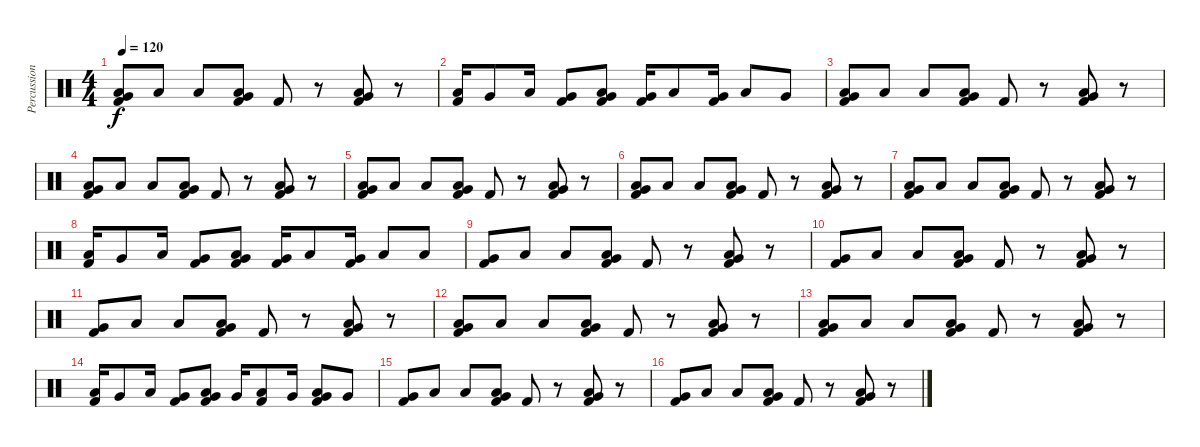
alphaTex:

\track ("Percussion" "Percussion") {instrument percussion}
\staff {score}
\articulation defaults
\ts (4 4)
\tempo 120
\clef neutral
\ks c
("Low Floor Tom (hit)" "Very Low Tom (hit)" "Kick (hit) 2").8{dy f} "Low Floor Tom (hit)".8 "Low Floor Tom (hit)".8 ("Low Floor Tom (hit)" "Very Low Tom (hit)" "Kick (hit) 2").8 "Kick (hit) 2".8 r.8 ("Low Floor Tom (hit)" "Very Low Tom (hit)" "Kick (hit) 2").8 r.8 |
("Low Floor Tom (hit)" "Kick (hit) 2").16 "Very Low Tom (hit)".8 "Low Floor Tom (hit)".16 ("Very Low Tom (hit)" "Kick (hit) 2").8 ("Low Floor Tom (hit)" "Very Low Tom (hit)" "Kick (hit) 2").8 ("Very Low Tom (hit)" "Kick (hit) 2").16 "Low Floor Tom (hit)".8 ("Very Low Tom (hit)" "Kick (hit) 2").16 "Low Floor Tom (hit)".8 "Very Low Tom (hit)".8 |
("Low Floor Tom (hit)" "Very Low Tom (hit)" "Kick (hit) 2").8 "Low Floor Tom (hit)".8 "Low Floor Tom (hit)".8 ("Low Floor Tom (hit)" "Very Low Tom (hit)" "Kick (hit) 2").8 "Kick (hit) 2".8 r.8 ("Low Floor Tom (hit)" "Very Low Tom (hit)" "Kick (hit) 2").8 r.8 |
("Low Floor Tom (hit)" "Very Low Tom (hit)" "Kick (hit) 2").8 "Low Floor Tom (hit)".8 "Low Floor Tom (hit)".8 ("Low Floor Tom (hit)" "Very Low Tom (hit)" "Kick (hit) 2").8 "Kick (hit) 2".8 r.8 ("Low Floor Tom (hit)" "Very Low Tom (hit)" "Kick (hit) 2").8 r.8 |
("Low Floor Tom (hit)" "Very Low Tom (hit)" "Kick (hit) 2").8 "Low Floor Tom (hit)".8 "Low Floor Tom (hit)".8 ("Low Floor Tom (hit)" "Very Low Tom (hit)" "Kick (hit) 2").8 "Kick (hit) 2".8 r.8 ("Low Floor Tom (hit)" "Very Low Tom (hit)" "Kick (hit) 2").8 r.8 |
("Low Floor Tom (hit)" "Very Low Tom (hit)" "Kick (hit) 2").8 "Low Floor Tom (hit)".8 "Low Floor Tom (hit)".8 ("Low Floor Tom (hit)" "Very Low Tom (hit)" "Kick (hit) 2").8 "Kick (hit) 2".8 r.8 ("Low Floor Tom (hit)" "Very Low Tom (hit)" "Kick (hit) 2").8 r.8 |
("Low Floor Tom (hit)" "Very Low Tom (hit)" "Kick (hit) 2").8 "Low Floor Tom (hit)".8 "Low Floor Tom (hit)".8 ("Low Floor Tom (hit)" "Very Low Tom (hit)" "Kick (hit) 2").8 "Kick (hit) 2".8 r.8 ("Low Floor Tom (hit)" "Very Low Tom (hit)" "Kick (hit) 2").8 r.8 |
("Low Floor Tom (hit)" "Kick (hit) 2").16 "Very Low Tom (hit)".8 "Low Floor Tom (hit)".16 ("Very Low Tom (hit)" "Kick (hit) 2").8 ("Low Floor Tom (hit)" "Very Low Tom (hit)" "Kick (hit) 2").8 ("Very Low Tom (hit)" "Kick (hit) 2").16 "Low Floor Tom (hit)".8 ("Very Low Tom (hit)" "Kick (hit) 2").16 "Low Floor Tom (hit)".8 "Low Floor Tom (hit)".8 |
("Very Low Tom (hit)" "Kick (hit) 2").8 "Low Floor Tom (hit)".8 "Low Floor Tom (hit)".8 ("Low Floor Tom (hit)" "Very Low Tom (hit)" "Kick (hit) 2").8 "Kick (hit) 2".8 r.8 ("Low Floor Tom (hit)" "Very Low Tom (hit)" "Kick (hit) 2").8 r.8 |
("Very Low Tom (hit)" "Kick (hit) 2").8 "Low Floor Tom (hit)".8 "Low Floor Tom (hit)".8 ("Low Floor Tom (hit)" "Very Low Tom (hit)" "Kick (hit) 2").8 "Kick (hit) 2".8 r.8 ("Low Floor Tom (hit)" "Very Low Tom (hit)" "Kick (hit) 2").8 r.8 |
("Very Low Tom (hit)" "Kick (hit) 2").8 "Low Floor Tom (hit)".8 "Low Floor Tom (hit)".8 ("Low Floor Tom (hit)" "Very Low Tom (hit)" "Kick (hit) 2").8 "Kick (hit) 2".8 r.8 ("Low Floor Tom (hit)" "Very Low Tom (hit)" "Kick (hit) 2").8 r.8 |
("Low Floor Tom (hit)" "Very Low Tom (hit)" "Kick (hit) 2").8 "Low Floor Tom (hit)".8 "Low Floor Tom (hit)".8 ("Low Floor Tom (hit)" "Very Low Tom (hit)" "Kick (hit) 2").8 "Kick (hit) 2".8 r.8 ("Low Floor Tom (hit)" "Very Low Tom (hit)" "Kick (hit) 2").8 r.8 |
("Low Floor Tom (hit)" "Very Low Tom (hit)" "Kick (hit) 2").8 "Low Floor Tom (hit)".8 "Low Floor Tom (hit)".8 ("Low Floor Tom (hit)" "Very Low Tom (hit)" "Kick (hit) 2").8 "Kick (hit) 2".8 r.8 ("Low Floor Tom (hit)" "Very Low Tom (hit)" "Kick (hit) 2").8 r.8 |
("Low Floor Tom (hit)" "Kick (hit) 2").16 "Very Low Tom (hit)".8 "Low Floor Tom (hit)".16 ("Very Low Tom (hit)" "Kick (hit) 2").8 ("Low Floor Tom (hit)" "Very Low Tom (hit)" "Kick (hit) 2").8 "Very Low Tom (hit)".16 ("Low Floor Tom (hit)" "Kick (hit) 2").8 "Very Low Tom (hit)".16 ("Low Floor Tom (hit)" "Very Low Tom (hit)" "Kick (hit) 2").8 "Very Low Tom (hit)".8 |
("Very Low Tom (hit)" "Kick (hit) 2").8 "Low Floor Tom (hit)".8 "Low Floor Tom (hit)".8 ("Low Floor Tom (hit)" "Very Low Tom (hit)" "Kick (hit) 2").8 "Kick (hit) 2".8 r.8 ("Low Floor Tom (hit)" "Very Low Tom (hit)" "Kick (hit) 2").8 r.8 |
("Very Low Tom (hit)" "Kick (hit) 2").8 "Low Floor Tom (hit)".8 "Low Floor Tom (hit)".8 ("Low Floor Tom (hit)" "Very Low Tom (hit)" "Kick (hit) 2").8 "Kick (hit) 2".8 r.8 ("Low Floor Tom (hit)" "Very Low Tom (hit)" "Kick (hit) 2").8 r.8
